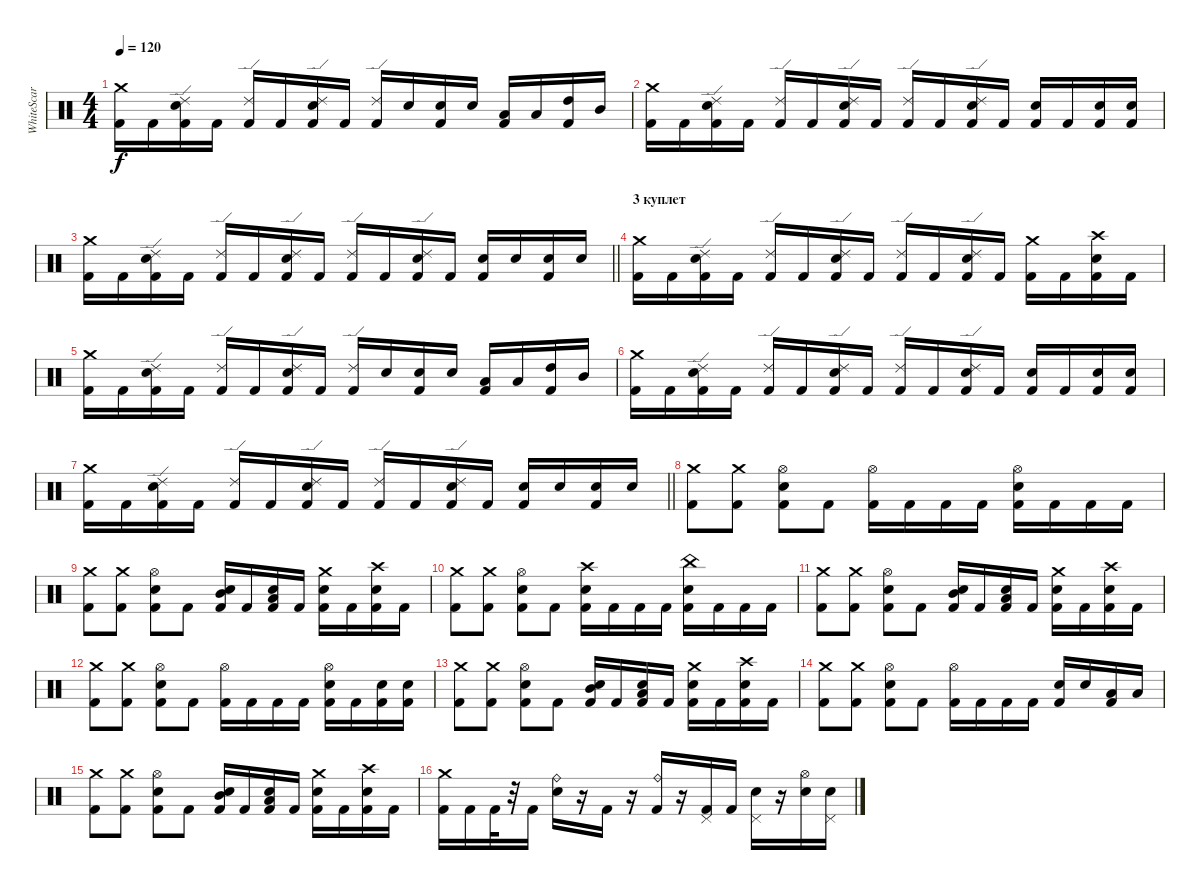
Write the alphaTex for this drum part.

\track ("WhiteScar" "WhiteScar") {instrument percussion}
\staff {score}
\articulation defaults
\ts (4 4)
\tempo 120
\clef neutral
\ks c
("Crash medium (hit)" "Kick (hit) 2").16{dy f} "Kick (hit) 2".16 ("Snare (hit) 2" "Ride (edge) 2" "Kick (hit) 2").16 "Kick (hit) 2".16 ("Ride (edge) 2" "Kick (hit) 2").16 "Kick (hit) 2".16 ("Snare (hit) 2" "Ride (edge) 2" "Kick (hit) 2").16 "Kick (hit) 2".16 ("Ride (edge) 2" "Kick (hit) 2").16 "Snare (hit) 2".16 ("Snare (hit) 2" "Kick (hit) 2").16 "Snare (hit) 2".16 ("Low Tom (hit)" "Kick (hit) 2").16 "Low Tom (hit)".16 ("High Tom (hit)" "Kick (hit) 2").16 "Mid Tom (hit)".16 |
("Crash medium (hit)" "Kick (hit) 2").16 "Kick (hit) 2".16 ("Snare (hit) 2" "Ride (edge) 2" "Kick (hit) 2").16 "Kick (hit) 2".16 ("Ride (edge) 2" "Kick (hit) 2").16 "Kick (hit) 2".16 ("Snare (hit) 2" "Ride (edge) 2" "Kick (hit) 2").16 "Kick (hit) 2".16 ("Ride (edge) 2" "Kick (hit) 2").16 "Kick (hit) 2".16 ("Snare (hit) 2" "Ride (edge) 2" "Kick (hit) 2").16 "Kick (hit) 2".16 ("Snare (hit) 2" "Kick (hit) 2").16 "Kick (hit) 2".16 ("Snare (hit) 2" "Kick (hit) 2").16 ("Snare (hit) 2" "Kick (hit) 2").16 |
\barLineRight lightlight
("Crash medium (hit)" "Kick (hit) 2").16 "Kick (hit) 2".16 ("Snare (hit) 2" "Ride (edge) 2" "Kick (hit) 2").16 "Kick (hit) 2".16 ("Ride (edge) 2" "Kick (hit) 2").16 "Kick (hit) 2".16 ("Snare (hit) 2" "Ride (edge) 2" "Kick (hit) 2").16 "Kick (hit) 2".16 ("Ride (edge) 2" "Kick (hit) 2").16 "Kick (hit) 2".16 ("Snare (hit) 2" "Ride (edge) 2" "Kick (hit) 2").16 "Kick (hit) 2".16 ("Snare (hit) 2" "Kick (hit) 2").16 "Snare (hit) 2".16 ("Snare (hit) 2" "Kick (hit) 2").16 "Snare (hit) 2".16 |
\section ("" "3 куплет")
("Crash medium (hit)" "Kick (hit) 2").16 "Kick (hit) 2".16 ("Snare (hit) 2" "Ride (edge) 2" "Kick (hit) 2").16 "Kick (hit) 2".16 ("Ride (edge) 2" "Kick (hit) 2").16 "Kick (hit) 2".16 ("Snare (hit) 2" "Ride (edge) 2" "Kick (hit) 2").16 "Kick (hit) 2".16 ("Ride (edge) 2" "Kick (hit) 2").16 "Kick (hit) 2".16 ("Snare (hit) 2" "Ride (edge) 2" "Kick (hit) 2").16 "Kick (hit) 2".16 ("Crash medium (hit)" "Kick (hit) 2").16 "Kick (hit) 2".16 ("Snare (hit) 2" "Crash high (hit)" "Kick (hit) 2").16 "Kick (hit) 2".16 |
("Crash medium (hit)" "Kick (hit) 2").16 "Kick (hit) 2".16 ("Snare (hit) 2" "Ride (edge) 2" "Kick (hit) 2").16 "Kick (hit) 2".16 ("Ride (edge) 2" "Kick (hit) 2").16 "Kick (hit) 2".16 ("Snare (hit) 2" "Ride (edge) 2" "Kick (hit) 2").16 "Kick (hit) 2".16 ("Ride (edge) 2" "Kick (hit) 2").16 "Snare (hit) 2".16 ("Snare (hit) 2" "Kick (hit) 2").16 "Snare (hit) 2".16 ("Low Tom (hit)" "Kick (hit) 2").16 "Low Tom (hit)".16 ("High Tom (hit)" "Kick (hit) 2").16 "Mid Tom (hit)".16 |
("Crash medium (hit)" "Kick (hit) 2").16 "Kick (hit) 2".16 ("Snare (hit) 2" "Ride (edge) 2" "Kick (hit) 2").16 "Kick (hit) 2".16 ("Ride (edge) 2" "Kick (hit) 2").16 "Kick (hit) 2".16 ("Snare (hit) 2" "Ride (edge) 2" "Kick (hit) 2").16 "Kick (hit) 2".16 ("Ride (edge) 2" "Kick (hit) 2").16 "Kick (hit) 2".16 ("Snare (hit) 2" "Ride (edge) 2" "Kick (hit) 2").16 "Kick (hit) 2".16 ("Snare (hit) 2" "Kick (hit) 2").16 "Kick (hit) 2".16 ("Snare (hit) 2" "Kick (hit) 2").16 ("Snare (hit) 2" "Kick (hit) 2").16 |
\barLineRight lightlight
("Crash medium (hit)" "Kick (hit) 2").16 "Kick (hit) 2".16 ("Snare (hit) 2" "Ride (edge) 2" "Kick (hit) 2").16 "Kick (hit) 2".16 ("Ride (edge) 2" "Kick (hit) 2").16 "Kick (hit) 2".16 ("Snare (hit) 2" "Ride (edge) 2" "Kick (hit) 2").16 "Kick (hit) 2".16 ("Ride (edge) 2" "Kick (hit) 2").16 "Kick (hit) 2".16 ("Snare (hit) 2" "Ride (edge) 2" "Kick (hit) 2").16 "Kick (hit) 2".16 ("Snare (hit) 2" "Kick (hit) 2").16 "Snare (hit) 2".16 ("Snare (hit) 2" "Kick (hit) 2").16 "Snare (hit) 2".16 |
("Crash medium (hit)" "Kick (hit) 2").8 ("Crash medium (hit)" "Kick (hit) 2").8 ("Hi-Hat (open)" "Snare (hit) 2" "Kick (hit) 2").8 "Kick (hit) 2".8 ("Hi-Hat (open)" "Kick (hit) 2").16 "Kick (hit) 2".16 "Kick (hit) 2".16 "Kick (hit) 2".16 ("Hi-Hat (open)" "Snare (hit) 2" "Kick (hit) 2").16 "Kick (hit) 2".16 "Kick (hit) 2".16 "Kick (hit) 2".16 |
("Crash medium (hit)" "Kick (hit) 2").8 ("Crash medium (hit)" "Kick (hit) 2").8 ("Hi-Hat (open)" "Snare (hit) 2" "Kick (hit) 2").8 "Kick (hit) 2".8 ("Mid Tom (hit)" "Snare (hit) 2" "Kick (hit) 2").16 "Kick (hit) 2".16 ("Low Tom (hit)" "Snare (hit) 2" "Kick (hit) 2").16 "Kick (hit) 2".16 ("Crash medium (hit)" "Snare (hit) 2" "Kick (hit) 2").16 "Kick (hit) 2".16 ("Crash high (hit)" "Snare (hit) 2" "Kick (hit) 2").16 "Kick (hit) 2".16 |
("Crash medium (hit)" "Kick (hit) 2").8 ("Crash medium (hit)" "Kick (hit) 2").8 ("Hi-Hat (open)" "Snare (hit) 2" "Kick (hit) 2").8 "Kick (hit) 2".8 ("Crash high (hit)" "Snare (hit) 2" "Kick (hit) 2").16 "Kick (hit) 2".16 "Kick (hit) 2".16 "Kick (hit) 2".16 ("China (hit)" "Snare (hit) 2" "Kick (hit) 2").16 "Kick (hit) 2".16 "Kick (hit) 2".16 "Kick (hit) 2".16 |
("Crash medium (hit)" "Kick (hit) 2").8 ("Crash medium (hit)" "Kick (hit) 2").8 ("Hi-Hat (open)" "Snare (hit) 2" "Kick (hit) 2").8 "Kick (hit) 2".8 ("Mid Tom (hit)" "Snare (hit) 2" "Kick (hit) 2").16 "Kick (hit) 2".16 ("Low Tom (hit)" "Snare (hit) 2" "Kick (hit) 2").16 "Kick (hit) 2".16 ("Crash medium (hit)" "Snare (hit) 2" "Kick (hit) 2").16 "Kick (hit) 2".16 ("Crash high (hit)" "Snare (hit) 2" "Kick (hit) 2").16 "Kick (hit) 2".16 |
("Crash medium (hit)" "Kick (hit) 2").8 ("Crash medium (hit)" "Kick (hit) 2").8 ("Hi-Hat (open)" "Snare (hit) 2" "Kick (hit) 2").8 "Kick (hit) 2".8 ("Hi-Hat (open)" "Kick (hit) 2").16 "Kick (hit) 2".16 "Kick (hit) 2".16 "Kick (hit) 2".16 ("Hi-Hat (open)" "Snare (hit) 2" "Kick (hit) 2").16 "Kick (hit) 2".16 ("Snare (hit) 2" "Kick (hit) 2").16 ("Snare (hit) 2" "Kick (hit) 2").16 |
("Crash medium (hit)" "Kick (hit) 2").8 ("Crash medium (hit)" "Kick (hit) 2").8 ("Hi-Hat (open)" "Snare (hit) 2" "Kick (hit) 2").8 "Kick (hit) 2".8 ("Mid Tom (hit)" "Snare (hit) 2" "Kick (hit) 2").16 "Kick (hit) 2".16 ("Low Tom (hit)" "Snare (hit) 2" "Kick (hit) 2").16 "Kick (hit) 2".16 ("Crash medium (hit)" "Snare (hit) 2" "Kick (hit) 2").16 "Kick (hit) 2".16 ("Crash high (hit)" "Snare (hit) 2" "Kick (hit) 2").16 "Kick (hit) 2".16 |
("Crash medium (hit)" "Kick (hit) 2").8 ("Crash medium (hit)" "Kick (hit) 2").8 ("Hi-Hat (open)" "Snare (hit) 2" "Kick (hit) 2").8 "Kick (hit) 2".8 ("Hi-Hat (open)" "Kick (hit) 2").16 "Kick (hit) 2".16 "Kick (hit) 2".16 "Kick (hit) 2".16 ("Snare (hit) 2" "Kick (hit) 2").16 "Snare (hit) 2".16 ("Low Tom (hit)" "Kick (hit) 2").16 "Low Tom (hit)".16 |
("Crash medium (hit)" "Kick (hit) 2").8 ("Crash medium (hit)" "Kick (hit) 2").8 ("Hi-Hat (open)" "Snare (hit) 2" "Kick (hit) 2").8 "Kick (hit) 2".8 ("Mid Tom (hit)" "Snare (hit) 2" "Kick (hit) 2").16 "Kick (hit) 2".16 ("Low Tom (hit)" "Snare (hit) 2" "Kick (hit) 2").16 "Kick (hit) 2".16 ("Crash medium (hit)" "Snare (hit) 2" "Kick (hit) 2").16 "Kick (hit) 2".16 ("Crash high (hit)" "Snare (hit) 2" "Kick (hit) 2").16 "Kick (hit) 2".16 |
("Crash medium (hit)" "Kick (hit) 2").16 "Kick (hit) 2".16 "Kick (hit) 2".32 r.32 "Kick (hit) 2".16 ("Ride (bell)" "Snare (hit) 2").16 r.16 "Kick (hit) 2".16 r.16 ("Ride (bell)" "Kick (hit) 2").16 r.16 ("Pedal Hi-Hat (hit)" "Kick (hit) 2").16 "Kick (hit) 2".16 ("Pedal Hi-Hat (hit)" "Snare (hit) 2").16 r.16 ("Hi-Hat (open)" "Snare (hit) 2").16 ("Pedal Hi-Hat (hit)" "Snare (hit) 2").16
